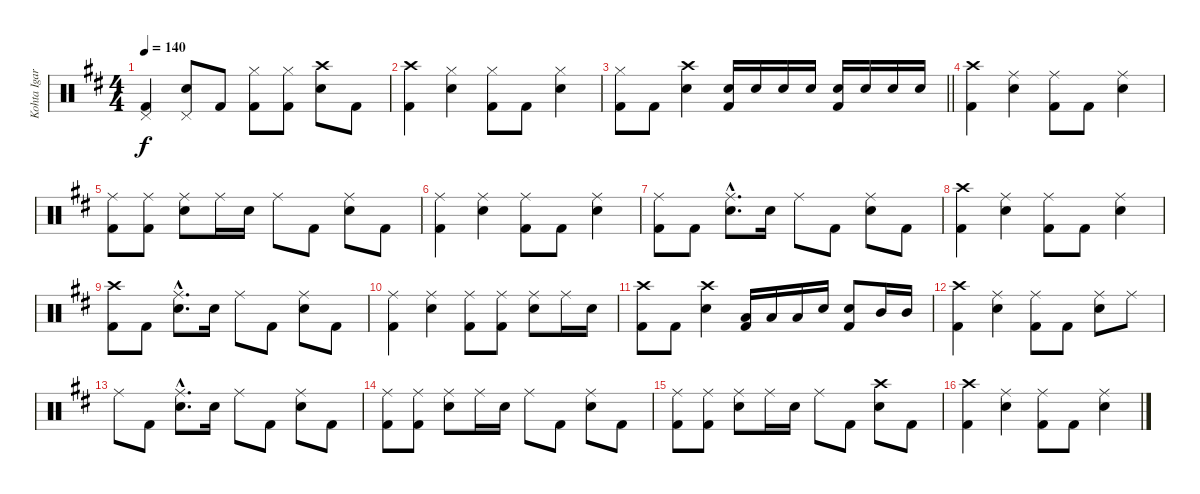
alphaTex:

\track ("Kohta Igarashi" "Kohta Igar") {instrument percussion}
\staff {score}
\articulation defaults
\ts (4 4)
\tempo 140
\clef neutral
\ks d
("Pedal Hi-Hat (hit)" "Kick (hit) 2").4{dy f} ("Pedal Hi-Hat (hit)" "Electric Snare (hit)").8 "Kick (hit) 2".8 ("Hi-Hat (closed)" "Kick (hit) 2").8 ("Hi-Hat (closed)" "Kick (hit) 2").8 ("Crash high (hit)" "Electric Snare (hit)").8 "Kick (hit) 2".8 |
("Crash high (hit)" "Kick (hit) 2").4 ("Hi-Hat (closed)" "Electric Snare (hit)").4 ("Hi-Hat (closed)" "Kick (hit) 2").8 "Kick (hit) 2".8 ("Hi-Hat (closed)" "Electric Snare (hit)").4 |
\barLineRight lightlight
("Hi-Hat (closed)" "Kick (hit) 2").8 "Kick (hit) 2".8 ("Crash high (hit)" "Electric Snare (hit)").4 ("Electric Snare (hit)" "Kick (hit) 2").16 "Electric Snare (hit)".16 "Electric Snare (hit)".16 "Electric Snare (hit)".16 ("Electric Snare (hit)" "Kick (hit) 2").16 "Electric Snare (hit)".16 "Electric Snare (hit)".16 "Electric Snare (hit)".16 |
("Crash high (hit)" "Kick (hit) 2").4 ("Ride (middle)" "Electric Snare (hit)").4 ("Ride (middle)" "Kick (hit) 2").8 "Kick (hit) 2".8 ("Ride (middle)" "Electric Snare (hit)").4 |
("Ride (middle)" "Kick (hit) 2").8 ("Ride (middle)" "Kick (hit) 2").8 ("Ride (middle)" "Electric Snare (hit)").8 "Ride (middle)".16 "Electric Snare (hit)".16 "Ride (middle)".8 "Kick (hit) 2".8 ("Ride (middle)" "Electric Snare (hit)").8 "Kick (hit) 2".8 |
("Ride (middle)" "Kick (hit) 2").4 ("Ride (middle)" "Electric Snare (hit)").4 ("Ride (middle)" "Kick (hit) 2").8 "Kick (hit) 2".8 ("Ride (middle)" "Electric Snare (hit)").4 |
("Ride (middle)" "Kick (hit) 2").8 "Kick (hit) 2".8 ("Ride (middle)"{hac} "Electric Snare (hit)"{hac}).8{d} "Electric Snare (hit)".16 "Ride (middle)".8 "Kick (hit) 2".8 ("Ride (middle)" "Electric Snare (hit)").8 "Kick (hit) 2".8 |
("Crash high (hit)" "Kick (hit) 2").4 ("Ride (middle)" "Electric Snare (hit)").4 ("Ride (middle)" "Kick (hit) 2").8 "Kick (hit) 2".8 ("Ride (middle)" "Electric Snare (hit)").4 |
("Crash high (hit)" "Kick (hit) 2").8 "Kick (hit) 2".8 ("Ride (middle)"{hac} "Electric Snare (hit)"{hac}).8{d} "Electric Snare (hit)".16 "Ride (middle)".8 "Kick (hit) 2".8 ("Ride (middle)" "Electric Snare (hit)").8 "Kick (hit) 2".8 |
("Ride (middle)" "Kick (hit) 2").4 ("Ride (middle)" "Electric Snare (hit)").4 ("Ride (middle)" "Kick (hit) 2").8 ("Ride (middle)" "Kick (hit) 2").8 ("Ride (middle)" "Electric Snare (hit)").8 "Ride (middle)".16 "Electric Snare (hit)".16 |
("Crash high (hit)" "Kick (hit) 2").8 "Kick (hit) 2".8 ("Crash high (hit)" "Electric Snare (hit)").4 ("Low Tom (hit)" "Kick (hit) 2").16 "Low Tom (hit)".16 "Low Tom (hit)".16 "Electric Snare (hit)".16 ("Electric Snare (hit)" "Kick (hit) 2").8 "Mid Tom (hit)".16 "Mid Tom (hit)".16 |
("Crash high (hit)" "Kick (hit) 2").4 ("Ride (middle)" "Electric Snare (hit)").4 ("Ride (middle)" "Kick (hit) 2").8 "Kick (hit) 2".8 ("Ride (middle)" "Electric Snare (hit)").8 "Ride (middle)".8 |
"Ride (middle)".8 "Kick (hit) 2".8 ("Ride (middle)"{hac} "Electric Snare (hit)"{hac}).8{d} "Electric Snare (hit)".16 "Ride (middle)".8 "Kick (hit) 2".8 ("Ride (middle)" "Electric Snare (hit)").8 "Kick (hit) 2".8 |
("Ride (middle)" "Kick (hit) 2").8 ("Ride (middle)" "Kick (hit) 2").8 ("Ride (middle)" "Electric Snare (hit)").8 "Ride (middle)".16 "Electric Snare (hit)".16 "Ride (middle)".8 "Kick (hit) 2".8 ("Ride (middle)" "Electric Snare (hit)").8 "Kick (hit) 2".8 |
("Ride (middle)" "Kick (hit) 2").8 ("Ride (middle)" "Kick (hit) 2").8 ("Ride (middle)" "Electric Snare (hit)").8 "Ride (middle)".16 "Electric Snare (hit)".16 "Ride (middle)".8 "Kick (hit) 2".8 ("Crash high (hit)" "Electric Snare (hit)").8 "Kick (hit) 2".8 |
("Crash high (hit)" "Kick (hit) 2").4 ("Ride (middle)" "Electric Snare (hit)").4 ("Ride (middle)" "Kick (hit) 2").8 "Kick (hit) 2".8 ("Ride (middle)" "Electric Snare (hit)").4
